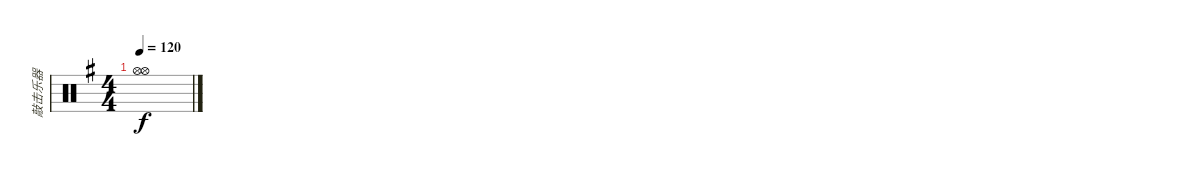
\track ("敲击乐器" "敲击乐器") {instrument percussion}
\staff {score}
\articulation defaults
\ts (4 4)
\tempo 120
\clef neutral
\ks g
("Hi-Hat (open)" "Hi-Hat (open)").1{dy f}
